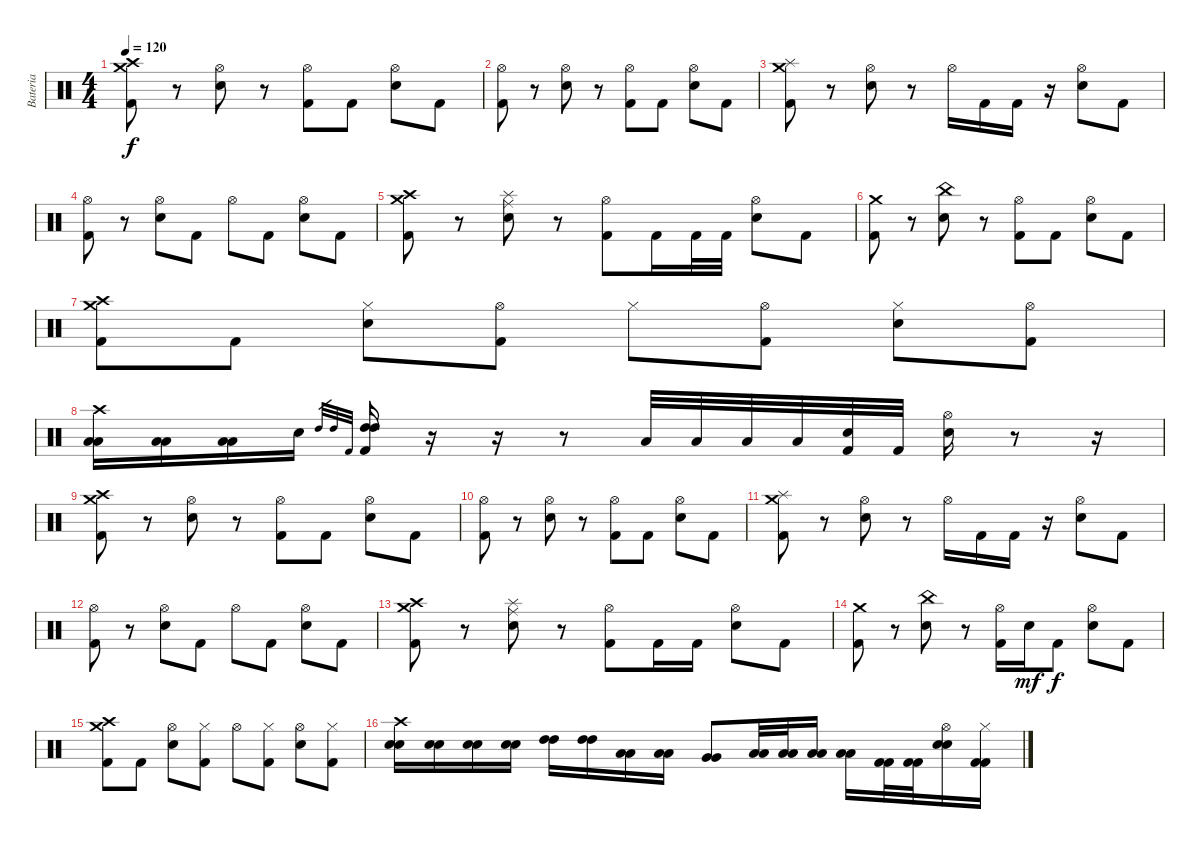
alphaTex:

\track ("Bateria" "Bateria") {instrument percussion}
\staff {score}
\articulation defaults
\ts (4 4)
\tempo 120
\clef neutral
\ks c
("Crash medium (hit)" "Crash high (hit)" "Kick (hit) 2").8{dy f} r.8 ("Hi-Hat (open)" "Electric Snare (hit)").8 r.8 ("Hi-Hat (open)" "Kick (hit) 2").8 "Kick (hit) 2".8 ("Hi-Hat (open)" "Electric Snare (hit)").8 "Kick (hit) 2".8 |
("Hi-Hat (open)" "Kick (hit) 2").8 r.8 ("Hi-Hat (open)" "Electric Snare (hit)").8 r.8 ("Hi-Hat (open)" "Kick (hit) 2").8 "Kick (hit) 2".8 ("Hi-Hat (open)" "Electric Snare (hit)").8 "Kick (hit) 2".8 |
("Crash medium (hit)" "Splash (hit)" "Kick (hit) 2").8 r.8 ("Hi-Hat (open)" "Electric Snare (hit)").8 r.8 "Hi-Hat (open)".16 "Kick (hit) 2".16 "Kick (hit) 2".16 r.16 ("Hi-Hat (open)" "Electric Snare (hit)").8 "Kick (hit) 2".8 |
("Hi-Hat (open)" "Kick (hit) 2").8 r.8 ("Hi-Hat (open)" "Electric Snare (hit)").8 "Kick (hit) 2".8 "Hi-Hat (open)".8 "Kick (hit) 2".8 ("Hi-Hat (open)" "Electric Snare (hit)").8 "Kick (hit) 2".8 |
("Crash medium (hit)" "Crash high (hit)" "Kick (hit) 2").8 r.8 ("Splash (hit)" "Ride (middle)" "Electric Snare (hit)").8 r.8 ("Hi-Hat (open)" "Kick (hit) 2").8 "Kick (hit) 2".16 "Kick (hit) 2".32 "Kick (hit) 2".32 ("Hi-Hat (open)" "Electric Snare (hit)").8 "Kick (hit) 2".8 |
("Crash medium (hit)" "Kick (hit) 2").8 r.8 ("China (hit)" "Electric Snare (hit)").8 r.8 ("Hi-Hat (open)" "Kick (hit) 2").8 "Kick (hit) 2".8 ("Hi-Hat (open)" "Electric Snare (hit)").8 "Kick (hit) 2".8 |
("Crash medium (hit)" "Crash high (hit)" "Kick (hit) 2").8 "Kick (hit) 2".8 ("Hi-Hat (closed)" "Electric Snare (hit)").8 ("Hi-Hat (open)" "Kick (hit) 2").8 "Hi-Hat (closed)".8 ("Hi-Hat (open)" "Kick (hit) 2").8 ("Hi-Hat (closed)" "Electric Snare (hit)").8 ("Hi-Hat (open)" "Kick (hit) 2").8 |
("Crash high (hit)" "Low Tom (hit)" "Low Tom (hit)").16 ("Low Tom (hit)" "Low Tom (hit)").16 ("Low Tom (hit)" "Low Tom (hit)").16 "Electric Snare (hit)".16 "High Tom (hit)".32{gr} "High Tom (hit)".32{gr} "Kick (hit) 2".32{gr} ("High Tom (hit)" "High Tom (hit)" "Kick (hit) 2").16 r.16 r.16 r.8 "Low Floor Tom (hit)".32 "Low Floor Tom (hit)".32 "Low Floor Tom (hit)".32 "Low Floor Tom (hit)".32 ("Electric Snare (hit)" "Kick (hit) 2").32 "Kick (hit) 2".32 ("Hi-Hat (open)" "Electric Snare (hit)").16 r.8 r.16 |
("Crash medium (hit)" "Crash high (hit)" "Kick (hit) 2").8 r.8 ("Hi-Hat (open)" "Electric Snare (hit)").8 r.8 ("Hi-Hat (open)" "Kick (hit) 2").8 "Kick (hit) 2".8 ("Hi-Hat (open)" "Electric Snare (hit)").8 "Kick (hit) 2".8 |
("Hi-Hat (open)" "Kick (hit) 2").8 r.8 ("Hi-Hat (open)" "Electric Snare (hit)").8 r.8 ("Hi-Hat (open)" "Kick (hit) 2").8 "Kick (hit) 2".8 ("Hi-Hat (open)" "Electric Snare (hit)").8 "Kick (hit) 2".8 |
("Crash medium (hit)" "Splash (hit)" "Kick (hit) 2").8 r.8 ("Hi-Hat (open)" "Electric Snare (hit)").8 r.8 "Hi-Hat (open)".16 "Kick (hit) 2".16 "Kick (hit) 2".16 r.16 ("Hi-Hat (open)" "Electric Snare (hit)").8 "Kick (hit) 2".8 |
("Hi-Hat (open)" "Kick (hit) 2").8 r.8 ("Hi-Hat (open)" "Electric Snare (hit)").8 "Kick (hit) 2".8 "Hi-Hat (open)".8 "Kick (hit) 2".8 ("Hi-Hat (open)" "Electric Snare (hit)").8 "Kick (hit) 2".8 |
("Crash medium (hit)" "Crash high (hit)" "Kick (hit) 2").8 r.8 ("Splash (hit)" "Ride (middle)" "Electric Snare (hit)").8 r.8 ("Hi-Hat (open)" "Kick (hit) 2").8 "Kick (hit) 2".16 "Kick (hit) 2".16 ("Hi-Hat (open)" "Electric Snare (hit)").8 "Kick (hit) 2".8 |
("Crash medium (hit)" "Kick (hit) 2").8 r.8 ("China (hit)" "Electric Snare (hit)").8 r.8 ("Hi-Hat (open)" "Kick (hit) 2").16 "Electric Snare (hit)".16{dy mf} "Kick (hit) 2".8{dy f} ("Hi-Hat (open)" "Electric Snare (hit)").8 "Kick (hit) 2".8 |
("Crash medium (hit)" "Crash high (hit)" "Kick (hit) 2").8 "Kick (hit) 2".8 ("Hi-Hat (open)" "Electric Snare (hit)").8 ("Hi-Hat (closed)" "Kick (hit) 2").8 "Hi-Hat (open)".8 ("Hi-Hat (closed)" "Kick (hit) 2").8 ("Hi-Hat (open)" "Electric Snare (hit)").8 ("Hi-Hat (closed)" "Kick (hit) 2").8 |
("Crash high (hit)" "Electric Snare (hit)" "Electric Snare (hit)").16 ("Electric Snare (hit)" "Electric Snare (hit)").16 ("Electric Snare (hit)" "Electric Snare (hit)").16 ("Electric Snare (hit)" "Electric Snare (hit)").16 ("High Tom (hit)" "High Tom (hit)").16 ("High Tom (hit)" "High Tom (hit)").16 ("Low Tom (hit)" "Low Tom (hit)").16 ("Low Tom (hit)" "Low Tom (hit)").16 ("Very Low Tom (hit)" "Very Low Tom (hit)").8 ("Low Floor Tom (hit)" "Low Floor Tom (hit)").32 ("Low Floor Tom (hit)" "Low Floor Tom (hit)").32 ("Low Floor Tom (hit)" "Low Floor Tom (hit)").16 ("Low Floor Tom (hit)" "Low Floor Tom (hit)").16 ("Kick (hit) 2" "Kick (hit) 2").32 ("Kick (hit) 2" "Kick (hit) 2").32 ("Hi-Hat (open)" "Electric Snare (hit)" "Electric Snare (hit)").16 ("Hi-Hat (closed)" "Kick (hit) 2" "Kick (hit) 2").16
